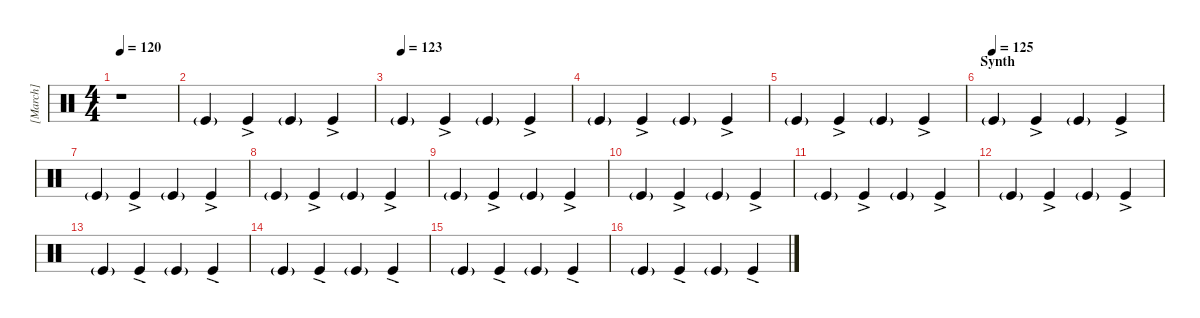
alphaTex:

\hideDynamics
\bracketExtendMode groupsimilarinstruments
\firstSystemTrackNameMode fullname
\otherSystemsTrackNameMode fullname
\otherSystemsTrackNameOrientation horizontal
\track ("[March]" "H-Clap") {instrument percussion}
\staff {score}
\articulation defaults
\ts (4 4)
\tempo 120
\clef neutral
\scale
0.333333
\ks c
r.1{dy mf} |
\scale
0.392344 "Kick (hit)"{g}.4 "Kick (hit)"{ac}.4 "Kick (hit)"{g}.4 "Kick (hit)"{ac}.4 |
\tempo (123)
"Kick (hit)"{g}.4 "Kick (hit)"{ac}.4 "Kick (hit)"{g}.4 "Kick (hit)"{ac}.4 |
"Kick (hit)"{g}.4 "Kick (hit)"{ac}.4 "Kick (hit)"{g}.4 "Kick (hit)"{ac}.4 |
"Kick (hit)"{g}.4 "Kick (hit)"{ac}.4 "Kick (hit)"{g}.4 "Kick (hit)"{ac}.4 |
\section ("" "Synth")
\tempo (125)
"Kick (hit)"{g}.4 "Kick (hit)"{ac}.4 "Kick (hit)"{g}.4 "Kick (hit)"{ac}.4 |
"Kick (hit)"{g}.4 "Kick (hit)"{ac}.4 "Kick (hit)"{g}.4 "Kick (hit)"{ac}.4 |
\scale
0.392344 "Kick (hit)"{g}.4 "Kick (hit)"{ac}.4 "Kick (hit)"{g}.4 "Kick (hit)"{ac}.4 |
\scale
0.215311 "Kick (hit)"{g}.4 "Kick (hit)"{ac}.4 "Kick (hit)"{g}.4 "Kick (hit)"{ac}.4 |
\scale
0.3 "Kick (hit)"{g}.4 "Kick (hit)"{ac}.4 "Kick (hit)"{g}.4 "Kick (hit)"{ac}.4 |
\scale
0.3 "Kick (hit)"{g}.4 "Kick (hit)"{ac}.4 "Kick (hit)"{g}.4 "Kick (hit)"{ac}.4 |
\scale
0.4 "Kick (hit)"{g}.4 "Kick (hit)"{ac}.4 "Kick (hit)"{g}.4 "Kick (hit)"{ac}.4 |
\scale
0.363636 "Kick (hit)"{g}.4 "Kick (hit)"{ac}.4 "Kick (hit)"{g}.4 "Kick (hit)"{ac}.4 |
"Kick (hit)"{g}.4 "Kick (hit)"{ac}.4 "Kick (hit)"{g}.4 "Kick (hit)"{ac}.4 |
"Kick (hit)"{g}.4 "Kick (hit)"{ac}.4 "Kick (hit)"{g}.4 "Kick (hit)"{ac}.4 |
"Kick (hit)"{g}.4 "Kick (hit)"{ac}.4 "Kick (hit)"{g}.4 "Kick (hit)"{ac}.4
